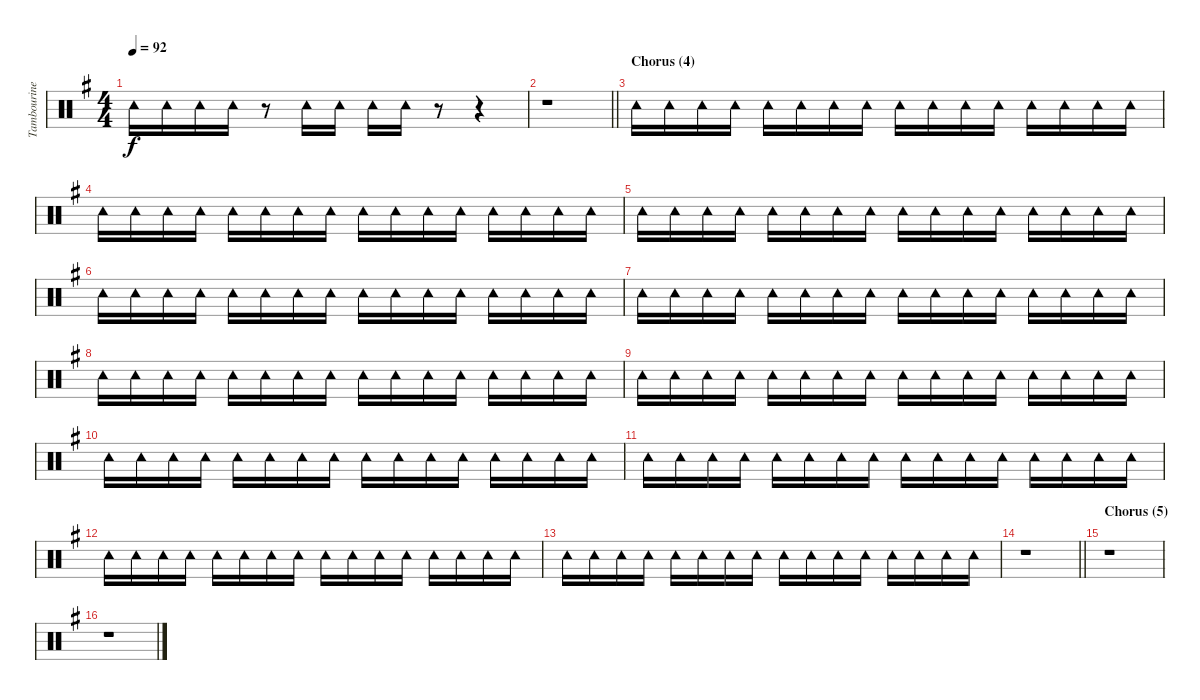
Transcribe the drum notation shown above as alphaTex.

\track ("Tambourine" "Tambourine") {instrument percussion}
\staff {score}
\articulation defaults
\ts (4 4)
\tempo 92
\clef neutral
\ks g "Tambourine (hit)".16{dy f} "Tambourine (hit)".16 "Tambourine (hit)".16 "Tambourine (hit)".16
r.8 "Tambourine (hit)".16 "Tambourine (hit)".16 "Tambourine (hit)".16 "Tambourine (hit)".16 r.8 r.4 |
\barLineRight lightlight
r.1 |
\section ("" "Chorus (4)")
"Tambourine (hit)".16 "Tambourine (hit)".16 "Tambourine (hit)".16 "Tambourine (hit)".16 "Tambourine (hit)".16 "Tambourine (hit)".16 "Tambourine (hit)".16 "Tambourine (hit)".16 "Tambourine (hit)".16 "Tambourine (hit)".16 "Tambourine (hit)".16 "Tambourine (hit)".16 "Tambourine (hit)".16 "Tambourine (hit)".16 "Tambourine (hit)".16 "Tambourine (hit)".16 |
"Tambourine (hit)".16 "Tambourine (hit)".16 "Tambourine (hit)".16 "Tambourine (hit)".16 "Tambourine (hit)".16 "Tambourine (hit)".16 "Tambourine (hit)".16 "Tambourine (hit)".16 "Tambourine (hit)".16 "Tambourine (hit)".16 "Tambourine (hit)".16 "Tambourine (hit)".16 "Tambourine (hit)".16 "Tambourine (hit)".16 "Tambourine (hit)".16 "Tambourine (hit)".16 |
"Tambourine (hit)".16 "Tambourine (hit)".16 "Tambourine (hit)".16 "Tambourine (hit)".16 "Tambourine (hit)".16 "Tambourine (hit)".16 "Tambourine (hit)".16 "Tambourine (hit)".16 "Tambourine (hit)".16 "Tambourine (hit)".16 "Tambourine (hit)".16 "Tambourine (hit)".16 "Tambourine (hit)".16 "Tambourine (hit)".16 "Tambourine (hit)".16 "Tambourine (hit)".16 |
"Tambourine (hit)".16 "Tambourine (hit)".16 "Tambourine (hit)".16 "Tambourine (hit)".16 "Tambourine (hit)".16 "Tambourine (hit)".16 "Tambourine (hit)".16 "Tambourine (hit)".16 "Tambourine (hit)".16 "Tambourine (hit)".16 "Tambourine (hit)".16 "Tambourine (hit)".16 "Tambourine (hit)".16 "Tambourine (hit)".16 "Tambourine (hit)".16 "Tambourine (hit)".16 |
"Tambourine (hit)".16 "Tambourine (hit)".16 "Tambourine (hit)".16 "Tambourine (hit)".16 "Tambourine (hit)".16 "Tambourine (hit)".16 "Tambourine (hit)".16 "Tambourine (hit)".16 "Tambourine (hit)".16 "Tambourine (hit)".16 "Tambourine (hit)".16 "Tambourine (hit)".16 "Tambourine (hit)".16 "Tambourine (hit)".16 "Tambourine (hit)".16 "Tambourine (hit)".16 |
"Tambourine (hit)".16 "Tambourine (hit)".16 "Tambourine (hit)".16 "Tambourine (hit)".16 "Tambourine (hit)".16 "Tambourine (hit)".16 "Tambourine (hit)".16 "Tambourine (hit)".16 "Tambourine (hit)".16 "Tambourine (hit)".16 "Tambourine (hit)".16 "Tambourine (hit)".16 "Tambourine (hit)".16 "Tambourine (hit)".16 "Tambourine (hit)".16 "Tambourine (hit)".16 |
"Tambourine (hit)".16 "Tambourine (hit)".16 "Tambourine (hit)".16 "Tambourine (hit)".16 "Tambourine (hit)".16 "Tambourine (hit)".16 "Tambourine (hit)".16 "Tambourine (hit)".16 "Tambourine (hit)".16 "Tambourine (hit)".16 "Tambourine (hit)".16 "Tambourine (hit)".16 "Tambourine (hit)".16 "Tambourine (hit)".16 "Tambourine (hit)".16 "Tambourine (hit)".16 |
"Tambourine (hit)".16 "Tambourine (hit)".16 "Tambourine (hit)".16 "Tambourine (hit)".16 "Tambourine (hit)".16 "Tambourine (hit)".16 "Tambourine (hit)".16 "Tambourine (hit)".16 "Tambourine (hit)".16 "Tambourine (hit)".16 "Tambourine (hit)".16 "Tambourine (hit)".16 "Tambourine (hit)".16 "Tambourine (hit)".16 "Tambourine (hit)".16 "Tambourine (hit)".16 |
"Tambourine (hit)".16 "Tambourine (hit)".16 "Tambourine (hit)".16 "Tambourine (hit)".16 "Tambourine (hit)".16 "Tambourine (hit)".16 "Tambourine (hit)".16 "Tambourine (hit)".16 "Tambourine (hit)".16 "Tambourine (hit)".16 "Tambourine (hit)".16 "Tambourine (hit)".16 "Tambourine (hit)".16 "Tambourine (hit)".16 "Tambourine (hit)".16 "Tambourine (hit)".16 |
"Tambourine (hit)".16 "Tambourine (hit)".16 "Tambourine (hit)".16 "Tambourine (hit)".16 "Tambourine (hit)".16 "Tambourine (hit)".16 "Tambourine (hit)".16 "Tambourine (hit)".16 "Tambourine (hit)".16 "Tambourine (hit)".16 "Tambourine (hit)".16 "Tambourine (hit)".16 "Tambourine (hit)".16 "Tambourine (hit)".16 "Tambourine (hit)".16 "Tambourine (hit)".16 |
"Tambourine (hit)".16 "Tambourine (hit)".16 "Tambourine (hit)".16 "Tambourine (hit)".16 "Tambourine (hit)".16 "Tambourine (hit)".16 "Tambourine (hit)".16 "Tambourine (hit)".16 "Tambourine (hit)".16 "Tambourine (hit)".16 "Tambourine (hit)".16 "Tambourine (hit)".16 "Tambourine (hit)".16 "Tambourine (hit)".16 "Tambourine (hit)".16 "Tambourine (hit)".16 |
\barLineRight lightlight
r.1 |
\section ("" "Chorus (5)")
r.1 |
r.1
